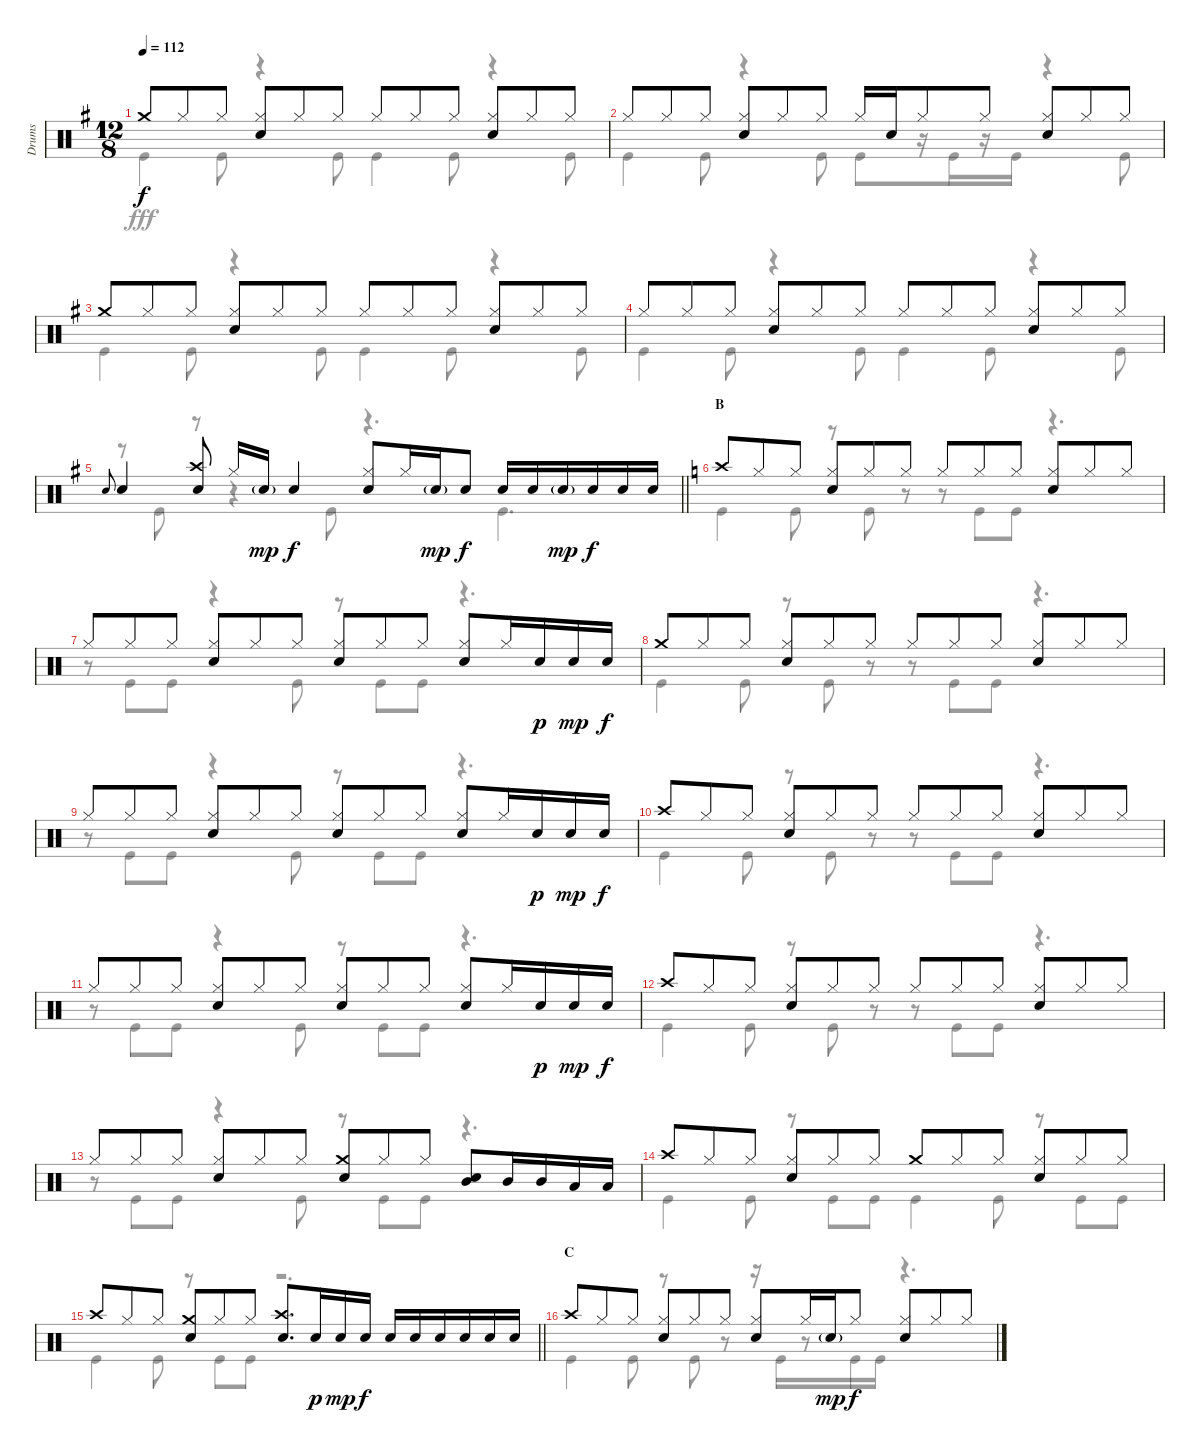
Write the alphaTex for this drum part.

\track ("Drums" "Drums") {instrument percussion}
\staff {score}
\articulation defaults
\voice
\ts (12 8)
\tempo 112
\clef neutral
\ks g "Crash medium (hit)".8{dy f} "Hi-Hat (closed)".8 "Hi-Hat (closed)".8
("Hi-Hat (closed)" "Snare (hit) 2").8 "Hi-Hat (closed)".8 "Hi-Hat (closed)".8 "Hi-Hat (closed)".8 "Hi-Hat (closed)".8 "Hi-Hat (closed)".8 ("Hi-Hat (closed)" "Snare (hit) 2").8 "Hi-Hat (closed)".8 "Hi-Hat (closed)".8 |
"Hi-Hat (closed)".8 "Hi-Hat (closed)".8 "Hi-Hat (closed)".8 ("Hi-Hat (closed)" "Snare (hit) 2").8 "Hi-Hat (closed)".8 "Hi-Hat (closed)".8 "Hi-Hat (closed)".16 "Snare (hit) 2".16 "Hi-Hat (closed)".8 "Hi-Hat (closed)".8 ("Hi-Hat (closed)" "Snare (hit) 2").8 "Hi-Hat (closed)".8 "Hi-Hat (closed)".8 |
"Crash medium (hit)".8 "Hi-Hat (closed)".8 "Hi-Hat (closed)".8 ("Hi-Hat (closed)" "Snare (hit) 2").8 "Hi-Hat (closed)".8 "Hi-Hat (closed)".8 "Hi-Hat (closed)".8 "Hi-Hat (closed)".8 "Hi-Hat (closed)".8 ("Hi-Hat (closed)" "Snare (hit) 2").8 "Hi-Hat (closed)".8 "Hi-Hat (closed)".8 |
"Hi-Hat (closed)".8 "Hi-Hat (closed)".8 "Hi-Hat (closed)".8 ("Hi-Hat (closed)" "Snare (hit) 2").8 "Hi-Hat (closed)".8 "Hi-Hat (closed)".8 "Hi-Hat (closed)".8 "Hi-Hat (closed)".8 "Hi-Hat (closed)".8 ("Hi-Hat (closed)" "Snare (hit) 2").8 "Hi-Hat (closed)".8 "Hi-Hat (closed)".8 |
\barLineRight lightlight "Snare (hit) 2".8{gr onbeat} "Snare (hit) 2".4
("Crash high (hit)" "Snare (hit) 2").8 "Hi-Hat (closed)".16 "Snare (hit) 2"{g}.16{dy mp} "Snare (hit) 2".4{dy f} ("Hi-Hat (closed)" "Snare (hit) 2").8 "Hi-Hat (closed)".16 "Snare (hit) 2"{g}.16{dy mp} "Snare (hit) 2".8{dy f} "Snare (hit) 2".16 "Snare (hit) 2".16 "Snare (hit) 2"{g}.16{dy mp} "Snare (hit) 2".16{dy f} "Snare (hit) 2".16 "Snare (hit) 2".16 |
\section ("" "B")
\ks c "Crash high (hit)".8 "Hi-Hat (closed)".8 "Hi-Hat (closed)".8
("Hi-Hat (closed)" "Snare (hit) 2").8 "Hi-Hat (closed)".8 "Hi-Hat (closed)".8 "Hi-Hat (closed)".8 "Hi-Hat (closed)".8 "Hi-Hat (closed)".8 ("Hi-Hat (closed)" "Snare (hit) 2").8 "Hi-Hat (closed)".8 "Hi-Hat (closed)".8 |
"Hi-Hat (closed)".8 "Hi-Hat (closed)".8 "Hi-Hat (closed)".8 ("Hi-Hat (closed)" "Snare (hit) 2").8 "Hi-Hat (closed)".8 "Hi-Hat (closed)".8 ("Hi-Hat (closed)" "Snare (hit) 2").8 "Hi-Hat (closed)".8 "Hi-Hat (closed)".8 ("Hi-Hat (closed)" "Snare (hit) 2").8 "Hi-Hat (closed)".16 "Snare (hit) 2".16{dy p} "Snare (hit) 2".16{dy mp} "Snare (hit) 2".16{dy f} |
"Crash medium (hit)".8 "Hi-Hat (closed)".8 "Hi-Hat (closed)".8 ("Hi-Hat (closed)" "Snare (hit) 2").8 "Hi-Hat (closed)".8 "Hi-Hat (closed)".8 "Hi-Hat (closed)".8 "Hi-Hat (closed)".8 "Hi-Hat (closed)".8 ("Hi-Hat (closed)" "Snare (hit) 2").8 "Hi-Hat (closed)".8 "Hi-Hat (closed)".8 |
"Hi-Hat (closed)".8 "Hi-Hat (closed)".8 "Hi-Hat (closed)".8 ("Hi-Hat (closed)" "Snare (hit) 2").8 "Hi-Hat (closed)".8 "Hi-Hat (closed)".8 ("Hi-Hat (closed)" "Snare (hit) 2").8 "Hi-Hat (closed)".8 "Hi-Hat (closed)".8 ("Hi-Hat (closed)" "Snare (hit) 2").8 "Hi-Hat (closed)".16 "Snare (hit) 2".16{dy p} "Snare (hit) 2".16{dy mp} "Snare (hit) 2".16{dy f} |
"Crash high (hit)".8 "Hi-Hat (closed)".8 "Hi-Hat (closed)".8 ("Hi-Hat (closed)" "Snare (hit) 2").8 "Hi-Hat (closed)".8 "Hi-Hat (closed)".8 "Hi-Hat (closed)".8 "Hi-Hat (closed)".8 "Hi-Hat (closed)".8 ("Hi-Hat (closed)" "Snare (hit) 2").8 "Hi-Hat (closed)".8 "Hi-Hat (closed)".8 |
"Hi-Hat (closed)".8 "Hi-Hat (closed)".8 "Hi-Hat (closed)".8 ("Hi-Hat (closed)" "Snare (hit) 2").8 "Hi-Hat (closed)".8 "Hi-Hat (closed)".8 ("Hi-Hat (closed)" "Snare (hit) 2").8 "Hi-Hat (closed)".8 "Hi-Hat (closed)".8 ("Hi-Hat (closed)" "Snare (hit) 2").8 "Hi-Hat (closed)".16 "Snare (hit) 2".16{dy p} "Snare (hit) 2".16{dy mp} "Snare (hit) 2".16{dy f} |
"Crash high (hit)".8 "Hi-Hat (closed)".8 "Hi-Hat (closed)".8 ("Hi-Hat (closed)" "Snare (hit) 2").8 "Hi-Hat (closed)".8 "Hi-Hat (closed)".8 "Hi-Hat (closed)".8 "Hi-Hat (closed)".8 "Hi-Hat (closed)".8 ("Hi-Hat (closed)" "Snare (hit) 2").8 "Hi-Hat (closed)".8 "Hi-Hat (closed)".8 |
"Hi-Hat (closed)".8 "Hi-Hat (closed)".8 "Hi-Hat (closed)".8 ("Hi-Hat (closed)" "Snare (hit) 2").8 "Hi-Hat (closed)".8 "Hi-Hat (closed)".8 ("Crash medium (hit)" "Snare (hit) 2").8 "Hi-Hat (closed)".8 "Hi-Hat (closed)".8 ("Mid Tom (hit)" "Snare (hit) 2").8 "Mid Tom (hit)".16 "Mid Tom (hit)".16 "Low Tom (hit)".16 "Low Tom (hit)".16 |
"Crash high (hit)".8 "Hi-Hat (closed)".8 "Hi-Hat (closed)".8 ("Hi-Hat (closed)" "Snare (hit) 2").8 "Hi-Hat (closed)".8 "Hi-Hat (closed)".8 "Crash medium (hit)".8 "Hi-Hat (closed)".8 "Hi-Hat (closed)".8 ("Hi-Hat (closed)" "Snare (hit) 2").8 "Hi-Hat (closed)".8 "Hi-Hat (closed)".8 |
\barLineRight lightlight "Crash high (hit)".8 "Hi-Hat (closed)".8 "Hi-Hat (closed)".8
("Crash medium (hit)" "Snare (hit) 2").8 "Hi-Hat (closed)".8 "Hi-Hat (closed)".8 ("Crash high (hit)" "Snare (hit) 2").8{d} "Snare (hit) 2".16{dy p} "Snare (hit) 2".16{dy mp} "Snare (hit) 2".16{dy f} "Snare (hit) 2".16 "Snare (hit) 2".16 "Snare (hit) 2".16 "Snare (hit) 2".16 "Snare (hit) 2".16 "Snare (hit) 2".16 |
\section ("" "C")
"Crash high (hit)".8 "Hi-Hat (closed)".8 "Hi-Hat (closed)".8 ("Hi-Hat (closed)" "Snare (hit) 2").8 "Hi-Hat (closed)".8 "Hi-Hat (closed)".8 ("Hi-Hat (closed)" "Snare (hit) 2").8 "Hi-Hat (closed)".16 "Snare (hit) 2"{g}.16{dy mp} "Hi-Hat (closed)".8{dy f} ("Hi-Hat (closed)" "Snare (hit) 2").8 "Hi-Hat (closed)".8 "Hi-Hat (closed)".8
\voice
\clef neutral
\ottava regular
\simile none
\ks g "Kick (hit)".4{dy fff} "Kick (hit)".8
r.4 "Kick (hit)".8 "Kick (hit)".4 "Kick (hit)".8 r.4 "Kick (hit)".8 |
"Kick (hit)".4 "Kick (hit)".8 r.4 "Kick (hit)".8 "Kick (hit)".8 r.16 "Kick (hit)".16 r.16 "Kick (hit)".16 r.4 "Kick (hit)".8 |
"Kick (hit)".4 "Kick (hit)".8 r.4 "Kick (hit)".8 "Kick (hit)".4 "Kick (hit)".8 r.4 "Kick (hit)".8 |
"Kick (hit)".4 "Kick (hit)".8 r.4 "Kick (hit)".8 "Kick (hit)".4 "Kick (hit)".8 r.4 "Kick (hit)".8 |
\barLineRight lightlight
r.8 "Kick (hit)".8 r.8 r.4 "Kick (hit)".8 r.4{d} "Kick (hit)".4{d} |
\ks c "Kick (hit)".4 "Kick (hit)".8
r.8 "Kick (hit)".8 r.8 r.8 "Kick (hit)".8 "Kick (hit)".8 r.4{d} |
r.8 "Kick (hit)".8 "Kick (hit)".8 r.4 "Kick (hit)".8 r.8 "Kick (hit)".8 "Kick (hit)".8 r.4{d} |
"Kick (hit)".4 "Kick (hit)".8 r.8 "Kick (hit)".8 r.8 r.8 "Kick (hit)".8 "Kick (hit)".8 r.4{d} |
r.8 "Kick (hit)".8 "Kick (hit)".8 r.4 "Kick (hit)".8 r.8 "Kick (hit)".8 "Kick (hit)".8 r.4{d} |
"Kick (hit)".4 "Kick (hit)".8 r.8 "Kick (hit)".8 r.8 r.8 "Kick (hit)".8 "Kick (hit)".8 r.4{d} |
r.8 "Kick (hit)".8 "Kick (hit)".8 r.4 "Kick (hit)".8 r.8 "Kick (hit)".8 "Kick (hit)".8 r.4{d} |
"Kick (hit)".4 "Kick (hit)".8 r.8 "Kick (hit)".8 r.8 r.8 "Kick (hit)".8 "Kick (hit)".8 r.4{d} |
r.8 "Kick (hit)".8 "Kick (hit)".8 r.4 "Kick (hit)".8 r.8 "Kick (hit)".8 "Kick (hit)".8 r.4{d} |
"Kick (hit)".4 "Kick (hit)".8 r.8 "Kick (hit)".8 "Kick (hit)".8 "Kick (hit)".4 "Kick (hit)".8 r.8 "Kick (hit)".8 "Kick (hit)".8 |
\barLineRight lightlight "Kick (hit)".4 "Kick (hit)".8
r.8 "Kick (hit)".8 "Kick (hit)".8 r.2{d} |
"Kick (hit)".4 "Kick (hit)".8 r.8 "Kick (hit)".8 r.8 r.16 "Kick (hit)".16 r.8 "Kick (hit)".16 "Kick (hit)".16 r.4{d}
